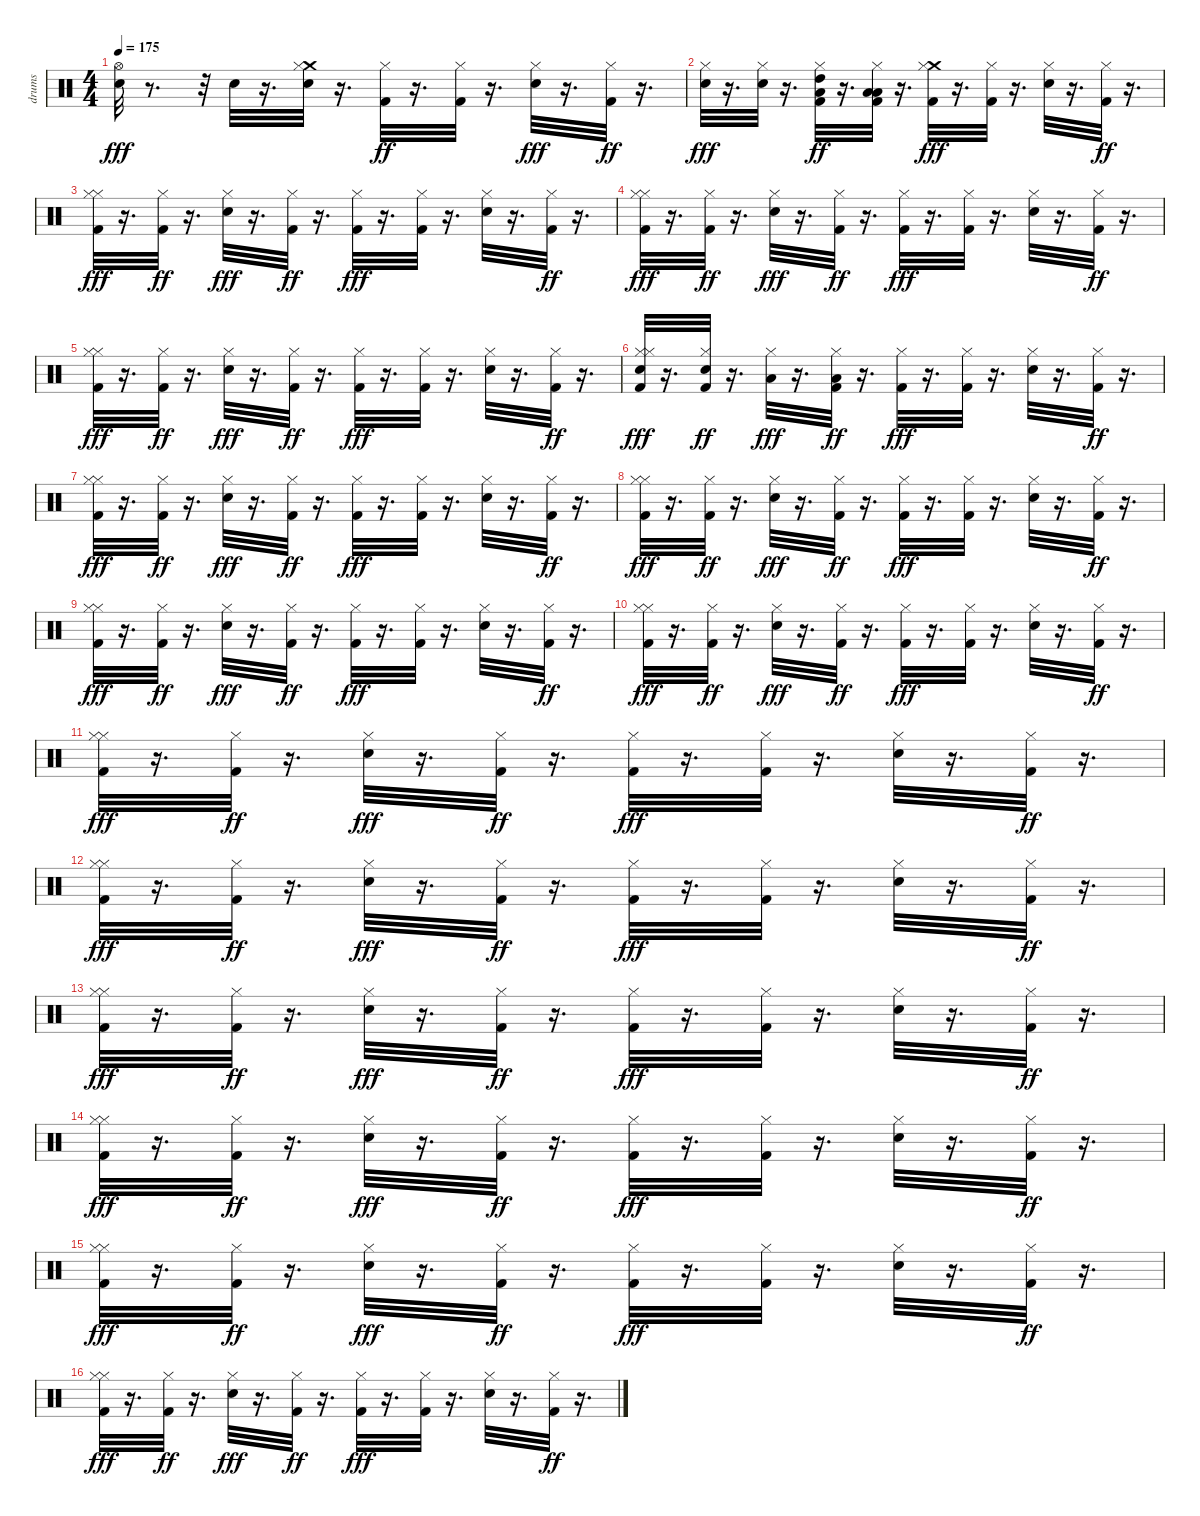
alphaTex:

\track ("drums" "drums") {instrument percussion}
\staff {score}
\articulation defaults
\ts (4 4)
\tempo 175
\clef neutral
\ks c
("Hi-Hat (open)" "Electric Snare (hit)").32{dy fff} r.8{d} r.32 "Electric Snare (hit)".32 r.16{d} ("Crash medium (hit)" "Hi-Hat (closed)" "Electric Snare (hit)").32 r.16{d} ("Hi-Hat (closed)" "Kick (hit) 2").32{dy ff} r.16{d} ("Hi-Hat (closed)" "Kick (hit) 2").32 r.16{d} ("Hi-Hat (closed)" "Electric Snare (hit)").32{dy fff} r.16{d} ("Hi-Hat (closed)" "Kick (hit) 2").32{dy ff} r.16{d} |
("Hi-Hat (closed)" "Electric Snare (hit)").32{dy fff} r.16{d} ("Hi-Hat (closed)" "Electric Snare (hit)").32 r.16{d} ("Hi-Hat (closed)" "Low Tom (hit)" "High Tom (hit)" "Kick (hit) 2").32{dy ff} r.16{d} ("Hi-Hat (closed)" "Low Floor Tom (hit)" "Low Tom (hit)" "Kick (hit) 2").32 r.16{d} ("Crash medium (hit)" "Hi-Hat (closed)" "Kick (hit) 2").32{dy fff} r.16{d} ("Hi-Hat (closed)" "Kick (hit) 2").32 r.16{d} ("Hi-Hat (closed)" "Electric Snare (hit)").32 r.16{d} ("Hi-Hat (closed)" "Kick (hit) 2").32{dy ff} r.16{d} |
("Hi-Hat (closed)" "Hi-Hat (closed)" "Kick (hit) 2").32{dy fff} r.16{d} ("Hi-Hat (closed)" "Kick (hit) 2").32{dy ff} r.16{d} ("Hi-Hat (closed)" "Electric Snare (hit)").32{dy fff} r.16{d} ("Hi-Hat (closed)" "Kick (hit) 2").32{dy ff} r.16{d} ("Hi-Hat (closed)" "Kick (hit) 2").32{dy fff} r.16{d} ("Hi-Hat (closed)" "Kick (hit) 2").32 r.16{d} ("Hi-Hat (closed)" "Electric Snare (hit)").32 r.16{d} ("Hi-Hat (closed)" "Kick (hit) 2").32{dy ff} r.16{d} |
("Hi-Hat (closed)" "Hi-Hat (closed)" "Kick (hit) 2").32{dy fff} r.16{d} ("Hi-Hat (closed)" "Kick (hit) 2").32{dy ff} r.16{d} ("Hi-Hat (closed)" "Electric Snare (hit)").32{dy fff} r.16{d} ("Hi-Hat (closed)" "Kick (hit) 2").32{dy ff} r.16{d} ("Hi-Hat (closed)" "Kick (hit) 2").32{dy fff} r.16{d} ("Hi-Hat (closed)" "Kick (hit) 2").32 r.16{d} ("Hi-Hat (closed)" "Electric Snare (hit)").32 r.16{d} ("Hi-Hat (closed)" "Kick (hit) 2").32{dy ff} r.16{d} |
("Hi-Hat (closed)" "Hi-Hat (closed)" "Kick (hit) 2").32{dy fff} r.16{d} ("Hi-Hat (closed)" "Kick (hit) 2").32{dy ff} r.16{d} ("Hi-Hat (closed)" "Electric Snare (hit)").32{dy fff} r.16{d} ("Hi-Hat (closed)" "Kick (hit) 2").32{dy ff} r.16{d} ("Hi-Hat (closed)" "Kick (hit) 2").32{dy fff} r.16{d} ("Hi-Hat (closed)" "Kick (hit) 2").32 r.16{d} ("Hi-Hat (closed)" "Electric Snare (hit)").32 r.16{d} ("Hi-Hat (closed)" "Kick (hit) 2").32{dy ff} r.16{d} |
("Hi-Hat (closed)" "Hi-Hat (closed)" "Electric Snare (hit)" "Kick (hit) 2").32{dy fff} r.16{d} ("Hi-Hat (closed)" "Electric Snare (hit)" "Kick (hit) 2").32{dy ff} r.16{d} ("Hi-Hat (closed)" "Low Tom (hit)").32{dy fff} r.16{d} ("Hi-Hat (closed)" "Low Tom (hit)" "Kick (hit) 2").32{dy ff} r.16{d} ("Hi-Hat (closed)" "Kick (hit) 2").32{dy fff} r.16{d} ("Hi-Hat (closed)" "Kick (hit) 2").32 r.16{d} ("Hi-Hat (closed)" "Electric Snare (hit)").32 r.16{d} ("Hi-Hat (closed)" "Kick (hit) 2").32{dy ff} r.16{d} |
("Hi-Hat (closed)" "Hi-Hat (closed)" "Kick (hit) 2").32{dy fff} r.16{d} ("Hi-Hat (closed)" "Kick (hit) 2").32{dy ff} r.16{d} ("Hi-Hat (closed)" "Electric Snare (hit)").32{dy fff} r.16{d} ("Hi-Hat (closed)" "Kick (hit) 2").32{dy ff} r.16{d} ("Hi-Hat (closed)" "Kick (hit) 2").32{dy fff} r.16{d} ("Hi-Hat (closed)" "Kick (hit) 2").32 r.16{d} ("Hi-Hat (closed)" "Electric Snare (hit)").32 r.16{d} ("Hi-Hat (closed)" "Kick (hit) 2").32{dy ff} r.16{d} |
("Hi-Hat (closed)" "Hi-Hat (closed)" "Kick (hit) 2").32{dy fff} r.16{d} ("Hi-Hat (closed)" "Kick (hit) 2").32{dy ff} r.16{d} ("Hi-Hat (closed)" "Electric Snare (hit)").32{dy fff} r.16{d} ("Hi-Hat (closed)" "Kick (hit) 2").32{dy ff} r.16{d} ("Hi-Hat (closed)" "Kick (hit) 2").32{dy fff} r.16{d} ("Hi-Hat (closed)" "Kick (hit) 2").32 r.16{d} ("Hi-Hat (closed)" "Electric Snare (hit)").32 r.16{d} ("Hi-Hat (closed)" "Kick (hit) 2").32{dy ff} r.16{d} |
("Hi-Hat (closed)" "Hi-Hat (closed)" "Kick (hit) 2").32{dy fff} r.16{d} ("Hi-Hat (closed)" "Kick (hit) 2").32{dy ff} r.16{d} ("Hi-Hat (closed)" "Electric Snare (hit)").32{dy fff} r.16{d} ("Hi-Hat (closed)" "Kick (hit) 2").32{dy ff} r.16{d} ("Hi-Hat (closed)" "Kick (hit) 2").32{dy fff} r.16{d} ("Hi-Hat (closed)" "Kick (hit) 2").32 r.16{d} ("Hi-Hat (closed)" "Electric Snare (hit)").32 r.16{d} ("Hi-Hat (closed)" "Kick (hit) 2").32{dy ff} r.16{d} |
("Hi-Hat (closed)" "Hi-Hat (closed)" "Kick (hit) 2").32{dy fff} r.16{d} ("Hi-Hat (closed)" "Kick (hit) 2").32{dy ff} r.16{d} ("Hi-Hat (closed)" "Electric Snare (hit)").32{dy fff} r.16{d} ("Hi-Hat (closed)" "Kick (hit) 2").32{dy ff} r.16{d} ("Hi-Hat (closed)" "Kick (hit) 2").32{dy fff} r.16{d} ("Hi-Hat (closed)" "Kick (hit) 2").32 r.16{d} ("Hi-Hat (closed)" "Electric Snare (hit)").32 r.16{d} ("Hi-Hat (closed)" "Kick (hit) 2").32{dy ff} r.16{d} |
("Hi-Hat (closed)" "Hi-Hat (closed)" "Kick (hit) 2").32{dy fff} r.16{d} ("Hi-Hat (closed)" "Kick (hit) 2").32{dy ff} r.16{d} ("Hi-Hat (closed)" "Electric Snare (hit)").32{dy fff} r.16{d} ("Hi-Hat (closed)" "Kick (hit) 2").32{dy ff} r.16{d} ("Hi-Hat (closed)" "Kick (hit) 2").32{dy fff} r.16{d} ("Hi-Hat (closed)" "Kick (hit) 2").32 r.16{d} ("Hi-Hat (closed)" "Electric Snare (hit)").32 r.16{d} ("Hi-Hat (closed)" "Kick (hit) 2").32{dy ff} r.16{d} |
("Hi-Hat (closed)" "Hi-Hat (closed)" "Kick (hit) 2").32{dy fff} r.16{d} ("Hi-Hat (closed)" "Kick (hit) 2").32{dy ff} r.16{d} ("Hi-Hat (closed)" "Electric Snare (hit)").32{dy fff} r.16{d} ("Hi-Hat (closed)" "Kick (hit) 2").32{dy ff} r.16{d} ("Hi-Hat (closed)" "Kick (hit) 2").32{dy fff} r.16{d} ("Hi-Hat (closed)" "Kick (hit) 2").32 r.16{d} ("Hi-Hat (closed)" "Electric Snare (hit)").32 r.16{d} ("Hi-Hat (closed)" "Kick (hit) 2").32{dy ff} r.16{d} |
("Hi-Hat (closed)" "Hi-Hat (closed)" "Kick (hit) 2").32{dy fff} r.16{d} ("Hi-Hat (closed)" "Kick (hit) 2").32{dy ff} r.16{d} ("Hi-Hat (closed)" "Electric Snare (hit)").32{dy fff} r.16{d} ("Hi-Hat (closed)" "Kick (hit) 2").32{dy ff} r.16{d} ("Hi-Hat (closed)" "Kick (hit) 2").32{dy fff} r.16{d} ("Hi-Hat (closed)" "Kick (hit) 2").32 r.16{d} ("Hi-Hat (closed)" "Electric Snare (hit)").32 r.16{d} ("Hi-Hat (closed)" "Kick (hit) 2").32{dy ff} r.16{d} |
("Hi-Hat (closed)" "Hi-Hat (closed)" "Kick (hit) 2").32{dy fff} r.16{d} ("Hi-Hat (closed)" "Kick (hit) 2").32{dy ff} r.16{d} ("Hi-Hat (closed)" "Electric Snare (hit)").32{dy fff} r.16{d} ("Hi-Hat (closed)" "Kick (hit) 2").32{dy ff} r.16{d} ("Hi-Hat (closed)" "Kick (hit) 2").32{dy fff} r.16{d} ("Hi-Hat (closed)" "Kick (hit) 2").32 r.16{d} ("Hi-Hat (closed)" "Electric Snare (hit)").32 r.16{d} ("Hi-Hat (closed)" "Kick (hit) 2").32{dy ff} r.16{d} |
("Hi-Hat (closed)" "Hi-Hat (closed)" "Kick (hit) 2").32{dy fff} r.16{d} ("Hi-Hat (closed)" "Kick (hit) 2").32{dy ff} r.16{d} ("Hi-Hat (closed)" "Electric Snare (hit)").32{dy fff} r.16{d} ("Hi-Hat (closed)" "Kick (hit) 2").32{dy ff} r.16{d} ("Hi-Hat (closed)" "Kick (hit) 2").32{dy fff} r.16{d} ("Hi-Hat (closed)" "Kick (hit) 2").32 r.16{d} ("Hi-Hat (closed)" "Electric Snare (hit)").32 r.16{d} ("Hi-Hat (closed)" "Kick (hit) 2").32{dy ff} r.16{d} |
("Hi-Hat (closed)" "Hi-Hat (closed)" "Kick (hit) 2").32{dy fff} r.16{d} ("Hi-Hat (closed)" "Kick (hit) 2").32{dy ff} r.16{d} ("Hi-Hat (closed)" "Electric Snare (hit)").32{dy fff} r.16{d} ("Hi-Hat (closed)" "Kick (hit) 2").32{dy ff} r.16{d} ("Hi-Hat (closed)" "Kick (hit) 2").32{dy fff} r.16{d} ("Hi-Hat (closed)" "Kick (hit) 2").32 r.16{d} ("Hi-Hat (closed)" "Electric Snare (hit)").32 r.16{d} ("Hi-Hat (closed)" "Kick (hit) 2").32{dy ff} r.16{d}
